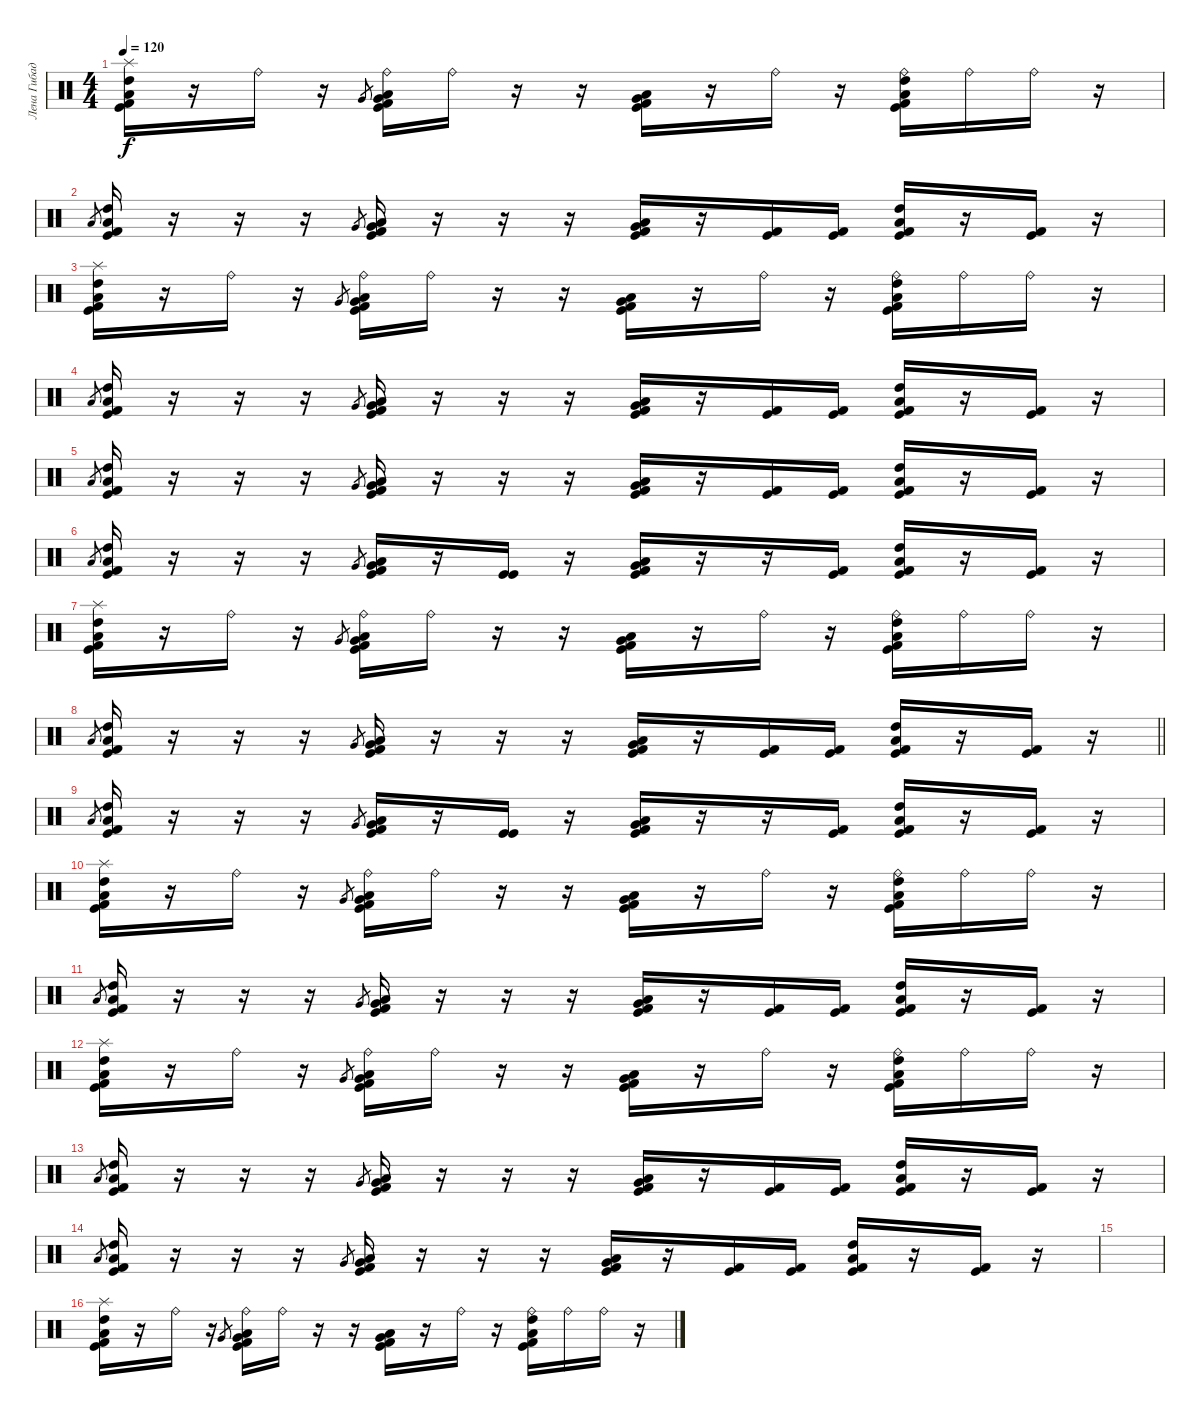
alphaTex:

\track ("Лена Гибадулина" "Лена Гибад") {instrument percussion}
\staff {score}
\articulation defaults
\ts (4 4)
\tempo 120
\clef neutral
\ks c
("Splash (hit)" "Kick (hit)" "Kick (hit) 2" "High Tom (hit)" "Low Tom (hit)").16{dy f} r.16 "Ride (bell)".16 r.16 "Very Low Tom (hit)".8{gr} ("Ride (bell)" "Kick (hit)" "Kick (hit) 2" "Very Low Tom (hit)" "Low Tom (hit)").16 "Ride (bell)".16 r.16 r.16 ("Kick (hit)" "Kick (hit) 2" "Low Floor Tom (hit)" "Very Low Tom (hit)").16 r.16 "Ride (bell)".16 r.16 ("Ride (bell)" "Kick (hit)" "Kick (hit) 2" "Low Tom (hit)" "High Tom (hit)").16 "Ride (bell)".16 "Ride (bell)".16 r.16 |
"Low Tom (hit)".8{gr} ("Kick (hit)" "Kick (hit) 2" "High Tom (hit)" "Low Tom (hit)").16 r.16 r.16 r.16 "Very Low Tom (hit)".8{gr} ("Kick (hit)" "Kick (hit) 2" "Very Low Tom (hit)" "Low Tom (hit)").16 r.16 r.16 r.16 ("Kick (hit)" "Kick (hit) 2" "Low Floor Tom (hit)" "Very Low Tom (hit)").16 r.16 ("Kick (hit)" "Kick (hit) 2").16 ("Kick (hit)" "Kick (hit) 2").16 ("Kick (hit)" "Kick (hit) 2" "Low Tom (hit)" "High Tom (hit)").16 r.16 ("Kick (hit)" "Kick (hit) 2").16 r.16 |
("Splash (hit)" "Kick (hit)" "Kick (hit) 2" "High Tom (hit)" "Low Tom (hit)").16 r.16 "Ride (bell)".16 r.16 "Very Low Tom (hit)".8{gr} ("Ride (bell)" "Kick (hit)" "Kick (hit) 2" "Very Low Tom (hit)" "Low Tom (hit)").16 "Ride (bell)".16 r.16 r.16 ("Kick (hit)" "Kick (hit) 2" "Low Floor Tom (hit)" "Very Low Tom (hit)").16 r.16 "Ride (bell)".16 r.16 ("Ride (bell)" "Kick (hit)" "Kick (hit) 2" "Low Tom (hit)" "High Tom (hit)").16 "Ride (bell)".16 "Ride (bell)".16 r.16 |
"Low Tom (hit)".8{gr} ("Kick (hit)" "Kick (hit) 2" "High Tom (hit)" "Low Tom (hit)").16 r.16 r.16 r.16 "Very Low Tom (hit)".8{gr} ("Kick (hit)" "Kick (hit) 2" "Very Low Tom (hit)" "Low Tom (hit)").16 r.16 r.16 r.16 ("Kick (hit)" "Kick (hit) 2" "Low Floor Tom (hit)" "Very Low Tom (hit)").16 r.16 ("Kick (hit)" "Kick (hit) 2").16 ("Kick (hit)" "Kick (hit) 2").16 ("Kick (hit)" "Kick (hit) 2" "Low Tom (hit)" "High Tom (hit)").16 r.16 ("Kick (hit)" "Kick (hit) 2").16 r.16 |
"Low Tom (hit)".8{gr} ("Kick (hit)" "Kick (hit) 2" "High Tom (hit)" "Low Tom (hit)").16 r.16 r.16 r.16 "Very Low Tom (hit)".8{gr} ("Kick (hit)" "Kick (hit) 2" "Very Low Tom (hit)" "Low Tom (hit)").16 r.16 r.16 r.16 ("Kick (hit)" "Kick (hit) 2" "Low Floor Tom (hit)" "Very Low Tom (hit)").16 r.16 ("Kick (hit)" "Kick (hit) 2").16 ("Kick (hit)" "Kick (hit) 2").16 ("Kick (hit)" "Kick (hit) 2" "Low Tom (hit)" "High Tom (hit)").16 r.16 ("Kick (hit)" "Kick (hit) 2").16 r.16 |
"Low Tom (hit)".8{gr} ("Kick (hit)" "Kick (hit) 2" "High Tom (hit)" "Low Tom (hit)").16 r.16 r.16 r.16 "Very Low Tom (hit)".8{gr} ("Kick (hit)" "Kick (hit) 2" "Very Low Tom (hit)" "Low Tom (hit)").16 r.16 ("Kick (hit)" "Kick (hit)").16 r.16 ("Kick (hit)" "Kick (hit) 2" "Low Floor Tom (hit)" "Very Low Tom (hit)").16 r.16 r.16 ("Kick (hit) 2" "Kick (hit)").16 ("Kick (hit)" "Kick (hit) 2" "Low Tom (hit)" "High Tom (hit)").16 r.16 ("Kick (hit)" "Kick (hit) 2").16 r.16 |
("Splash (hit)" "Kick (hit)" "Kick (hit) 2" "High Tom (hit)" "Low Tom (hit)").16 r.16 "Ride (bell)".16 r.16 "Very Low Tom (hit)".8{gr} ("Ride (bell)" "Kick (hit)" "Kick (hit) 2" "Very Low Tom (hit)" "Low Tom (hit)").16 "Ride (bell)".16 r.16 r.16 ("Kick (hit)" "Kick (hit) 2" "Low Floor Tom (hit)" "Very Low Tom (hit)").16 r.16 "Ride (bell)".16 r.16 ("Ride (bell)" "Kick (hit)" "Kick (hit) 2" "Low Tom (hit)" "High Tom (hit)").16 "Ride (bell)".16 "Ride (bell)".16 r.16 |
\barLineRight lightlight "Low Tom (hit)".8{gr}
("Kick (hit)" "Kick (hit) 2" "High Tom (hit)" "Low Tom (hit)").16 r.16 r.16 r.16 "Very Low Tom (hit)".8{gr} ("Kick (hit)" "Kick (hit) 2" "Very Low Tom (hit)" "Low Tom (hit)").16 r.16 r.16 r.16 ("Kick (hit)" "Kick (hit) 2" "Low Floor Tom (hit)" "Very Low Tom (hit)").16 r.16 ("Kick (hit)" "Kick (hit) 2").16 ("Kick (hit)" "Kick (hit) 2").16 ("Kick (hit)" "Kick (hit) 2" "Low Tom (hit)" "High Tom (hit)").16 r.16 ("Kick (hit)" "Kick (hit) 2").16 r.16 |
"Low Tom (hit)".8{gr} ("Kick (hit)" "Kick (hit) 2" "High Tom (hit)" "Low Tom (hit)").16 r.16 r.16 r.16 "Very Low Tom (hit)".8{gr} ("Kick (hit)" "Kick (hit) 2" "Very Low Tom (hit)" "Low Tom (hit)").16 r.16 ("Kick (hit)" "Kick (hit)").16 r.16 ("Kick (hit)" "Kick (hit) 2" "Low Floor Tom (hit)" "Very Low Tom (hit)").16 r.16 r.16 ("Kick (hit) 2" "Kick (hit)").16 ("Kick (hit)" "Kick (hit) 2" "Low Tom (hit)" "High Tom (hit)").16 r.16 ("Kick (hit)" "Kick (hit) 2").16 r.16 |
("Splash (hit)" "Kick (hit)" "Kick (hit) 2" "High Tom (hit)" "Low Tom (hit)").16 r.16 "Ride (bell)".16 r.16 "Very Low Tom (hit)".8{gr} ("Ride (bell)" "Kick (hit)" "Kick (hit) 2" "Very Low Tom (hit)" "Low Tom (hit)").16 "Ride (bell)".16 r.16 r.16 ("Kick (hit)" "Kick (hit) 2" "Low Floor Tom (hit)" "Very Low Tom (hit)").16 r.16 "Ride (bell)".16 r.16 ("Ride (bell)" "Kick (hit)" "Kick (hit) 2" "Low Tom (hit)" "High Tom (hit)").16 "Ride (bell)".16 "Ride (bell)".16 r.16 |
"Low Tom (hit)".8{gr} ("Kick (hit)" "Kick (hit) 2" "High Tom (hit)" "Low Tom (hit)").16 r.16 r.16 r.16 "Very Low Tom (hit)".8{gr} ("Kick (hit)" "Kick (hit) 2" "Very Low Tom (hit)" "Low Tom (hit)").16 r.16 r.16 r.16 ("Kick (hit)" "Kick (hit) 2" "Low Floor Tom (hit)" "Very Low Tom (hit)").16 r.16 ("Kick (hit)" "Kick (hit) 2").16 ("Kick (hit)" "Kick (hit) 2").16 ("Kick (hit)" "Kick (hit) 2" "Low Tom (hit)" "High Tom (hit)").16 r.16 ("Kick (hit)" "Kick (hit) 2").16 r.16 |
("Splash (hit)" "Kick (hit)" "Kick (hit) 2" "High Tom (hit)" "Low Tom (hit)").16 r.16 "Ride (bell)".16 r.16 "Very Low Tom (hit)".8{gr} ("Ride (bell)" "Kick (hit)" "Kick (hit) 2" "Very Low Tom (hit)" "Low Tom (hit)").16 "Ride (bell)".16 r.16 r.16 ("Kick (hit)" "Kick (hit) 2" "Low Floor Tom (hit)" "Very Low Tom (hit)").16 r.16 "Ride (bell)".16 r.16 ("Ride (bell)" "Kick (hit)" "Kick (hit) 2" "Low Tom (hit)" "High Tom (hit)").16 "Ride (bell)".16 "Ride (bell)".16 r.16 |
"Low Tom (hit)".8{gr} ("Kick (hit)" "Kick (hit) 2" "High Tom (hit)" "Low Tom (hit)").16 r.16 r.16 r.16 "Very Low Tom (hit)".8{gr} ("Kick (hit)" "Kick (hit) 2" "Very Low Tom (hit)" "Low Tom (hit)").16 r.16 r.16 r.16 ("Kick (hit)" "Kick (hit) 2" "Low Floor Tom (hit)" "Very Low Tom (hit)").16 r.16 ("Kick (hit)" "Kick (hit) 2").16 ("Kick (hit)" "Kick (hit) 2").16 ("Kick (hit)" "Kick (hit) 2" "Low Tom (hit)" "High Tom (hit)").16 r.16 ("Kick (hit)" "Kick (hit) 2").16 r.16 |
"Low Tom (hit)".8{gr} ("Kick (hit)" "Kick (hit) 2" "High Tom (hit)" "Low Tom (hit)").16 r.16 r.16 r.16 "Very Low Tom (hit)".8{gr} ("Kick (hit)" "Kick (hit) 2" "Very Low Tom (hit)" "Low Tom (hit)").16 r.16 r.16 r.16 ("Kick (hit)" "Kick (hit) 2" "Low Floor Tom (hit)" "Very Low Tom (hit)").16 r.16 ("Kick (hit)" "Kick (hit) 2").16 ("Kick (hit)" "Kick (hit) 2").16 ("Kick (hit)" "Kick (hit) 2" "Low Tom (hit)" "High Tom (hit)").16 r.16 ("Kick (hit)" "Kick (hit) 2").16 r.16 |
|
("Splash (hit)" "Kick (hit)" "Kick (hit) 2" "High Tom (hit)" "Low Tom (hit)").16 r.16 "Ride (bell)".16 r.16 "Very Low Tom (hit)".8{gr} ("Ride (bell)" "Kick (hit)" "Kick (hit) 2" "Very Low Tom (hit)" "Low Tom (hit)").16 "Ride (bell)".16 r.16 r.16 ("Kick (hit)" "Kick (hit) 2" "Low Floor Tom (hit)" "Very Low Tom (hit)").16 r.16 "Ride (bell)".16 r.16 ("Ride (bell)" "Kick (hit)" "Kick (hit) 2" "Low Tom (hit)" "High Tom (hit)").16 "Ride (bell)".16 "Ride (bell)".16 r.16
